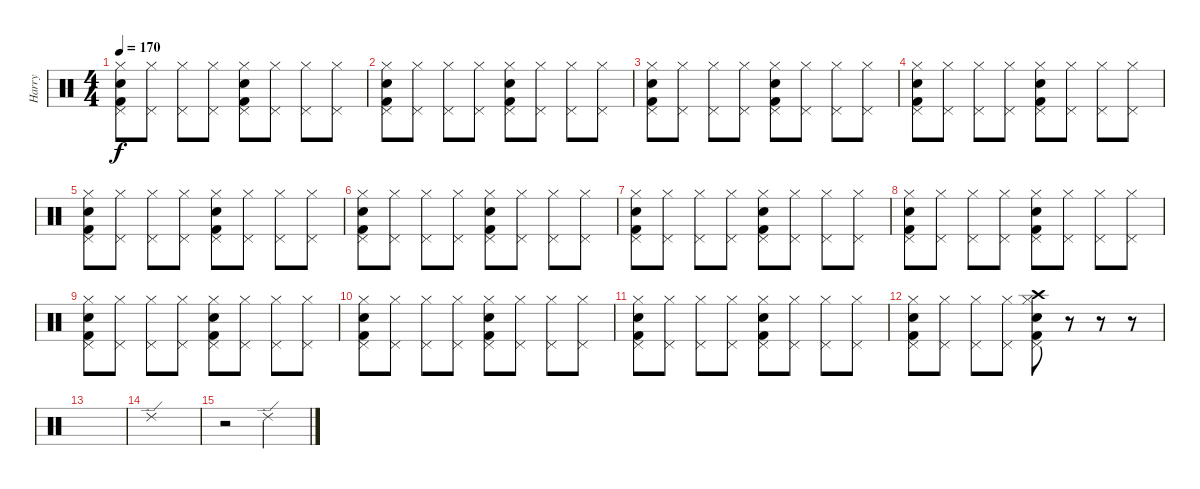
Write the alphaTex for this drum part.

\track ("Harry" "Harry") {instrument percussion}
\staff {score}
\articulation defaults
\ts (4 4)
\tempo 170
\clef neutral
\ks c
("Hi-Hat (closed)" "Pedal Hi-Hat (hit)" "Kick (hit) 2" "Snare (hit) 2").8{dy f} ("Hi-Hat (closed)" "Pedal Hi-Hat (hit)").8 ("Hi-Hat (closed)" "Pedal Hi-Hat (hit)").8 ("Hi-Hat (closed)" "Pedal Hi-Hat (hit)").8 ("Hi-Hat (closed)" "Pedal Hi-Hat (hit)" "Kick (hit) 2" "Snare (hit) 2").8 ("Hi-Hat (closed)" "Pedal Hi-Hat (hit)").8 ("Hi-Hat (closed)" "Pedal Hi-Hat (hit)").8 ("Hi-Hat (closed)" "Pedal Hi-Hat (hit)").8 |
("Hi-Hat (closed)" "Pedal Hi-Hat (hit)" "Kick (hit) 2" "Snare (hit) 2").8 ("Hi-Hat (closed)" "Pedal Hi-Hat (hit)").8 ("Hi-Hat (closed)" "Pedal Hi-Hat (hit)").8 ("Hi-Hat (closed)" "Pedal Hi-Hat (hit)").8 ("Hi-Hat (closed)" "Pedal Hi-Hat (hit)" "Kick (hit) 2" "Snare (hit) 2").8 ("Hi-Hat (closed)" "Pedal Hi-Hat (hit)").8 ("Hi-Hat (closed)" "Pedal Hi-Hat (hit)").8 ("Hi-Hat (closed)" "Pedal Hi-Hat (hit)").8 |
("Hi-Hat (closed)" "Pedal Hi-Hat (hit)" "Kick (hit) 2" "Snare (hit) 2").8 ("Hi-Hat (closed)" "Pedal Hi-Hat (hit)").8 ("Hi-Hat (closed)" "Pedal Hi-Hat (hit)").8 ("Hi-Hat (closed)" "Pedal Hi-Hat (hit)").8 ("Hi-Hat (closed)" "Pedal Hi-Hat (hit)" "Kick (hit) 2" "Snare (hit) 2").8 ("Hi-Hat (closed)" "Pedal Hi-Hat (hit)").8 ("Hi-Hat (closed)" "Pedal Hi-Hat (hit)").8 ("Hi-Hat (closed)" "Pedal Hi-Hat (hit)").8 |
("Hi-Hat (closed)" "Pedal Hi-Hat (hit)" "Kick (hit) 2" "Snare (hit) 2").8 ("Hi-Hat (closed)" "Pedal Hi-Hat (hit)").8 ("Hi-Hat (closed)" "Pedal Hi-Hat (hit)").8 ("Hi-Hat (closed)" "Pedal Hi-Hat (hit)").8 ("Hi-Hat (closed)" "Pedal Hi-Hat (hit)" "Kick (hit) 2" "Snare (hit) 2").8 ("Hi-Hat (closed)" "Pedal Hi-Hat (hit)").8 ("Hi-Hat (closed)" "Pedal Hi-Hat (hit)").8 ("Hi-Hat (closed)" "Pedal Hi-Hat (hit)").8 |
("Hi-Hat (closed)" "Pedal Hi-Hat (hit)" "Kick (hit) 2" "Snare (hit) 2").8 ("Hi-Hat (closed)" "Pedal Hi-Hat (hit)").8 ("Hi-Hat (closed)" "Pedal Hi-Hat (hit)").8 ("Hi-Hat (closed)" "Pedal Hi-Hat (hit)").8 ("Hi-Hat (closed)" "Pedal Hi-Hat (hit)" "Kick (hit) 2" "Snare (hit) 2").8 ("Hi-Hat (closed)" "Pedal Hi-Hat (hit)").8 ("Hi-Hat (closed)" "Pedal Hi-Hat (hit)").8 ("Hi-Hat (closed)" "Pedal Hi-Hat (hit)").8 |
("Hi-Hat (closed)" "Pedal Hi-Hat (hit)" "Kick (hit) 2" "Snare (hit) 2").8 ("Hi-Hat (closed)" "Pedal Hi-Hat (hit)").8 ("Hi-Hat (closed)" "Pedal Hi-Hat (hit)").8 ("Hi-Hat (closed)" "Pedal Hi-Hat (hit)").8 ("Hi-Hat (closed)" "Pedal Hi-Hat (hit)" "Kick (hit) 2" "Snare (hit) 2").8 ("Hi-Hat (closed)" "Pedal Hi-Hat (hit)").8 ("Hi-Hat (closed)" "Pedal Hi-Hat (hit)").8 ("Hi-Hat (closed)" "Pedal Hi-Hat (hit)").8 |
("Hi-Hat (closed)" "Pedal Hi-Hat (hit)" "Kick (hit) 2" "Snare (hit) 2").8 ("Hi-Hat (closed)" "Pedal Hi-Hat (hit)").8 ("Hi-Hat (closed)" "Pedal Hi-Hat (hit)").8 ("Hi-Hat (closed)" "Pedal Hi-Hat (hit)").8 ("Hi-Hat (closed)" "Pedal Hi-Hat (hit)" "Kick (hit) 2" "Snare (hit) 2").8 ("Hi-Hat (closed)" "Pedal Hi-Hat (hit)").8 ("Hi-Hat (closed)" "Pedal Hi-Hat (hit)").8 ("Hi-Hat (closed)" "Pedal Hi-Hat (hit)").8 |
("Hi-Hat (closed)" "Pedal Hi-Hat (hit)" "Kick (hit) 2" "Snare (hit) 2").8 ("Hi-Hat (closed)" "Pedal Hi-Hat (hit)").8 ("Hi-Hat (closed)" "Pedal Hi-Hat (hit)").8 ("Hi-Hat (closed)" "Pedal Hi-Hat (hit)").8 ("Hi-Hat (closed)" "Pedal Hi-Hat (hit)" "Kick (hit) 2" "Snare (hit) 2").8 ("Hi-Hat (closed)" "Pedal Hi-Hat (hit)").8 ("Hi-Hat (closed)" "Pedal Hi-Hat (hit)").8 ("Hi-Hat (closed)" "Pedal Hi-Hat (hit)").8 |
("Hi-Hat (closed)" "Pedal Hi-Hat (hit)" "Kick (hit) 2" "Snare (hit) 2").8 ("Hi-Hat (closed)" "Pedal Hi-Hat (hit)").8 ("Hi-Hat (closed)" "Pedal Hi-Hat (hit)").8 ("Hi-Hat (closed)" "Pedal Hi-Hat (hit)").8 ("Hi-Hat (closed)" "Pedal Hi-Hat (hit)" "Kick (hit) 2" "Snare (hit) 2").8 ("Hi-Hat (closed)" "Pedal Hi-Hat (hit)").8 ("Hi-Hat (closed)" "Pedal Hi-Hat (hit)").8 ("Hi-Hat (closed)" "Pedal Hi-Hat (hit)").8 |
("Hi-Hat (closed)" "Pedal Hi-Hat (hit)" "Kick (hit) 2" "Snare (hit) 2").8 ("Hi-Hat (closed)" "Pedal Hi-Hat (hit)").8 ("Hi-Hat (closed)" "Pedal Hi-Hat (hit)").8 ("Hi-Hat (closed)" "Pedal Hi-Hat (hit)").8 ("Hi-Hat (closed)" "Pedal Hi-Hat (hit)" "Kick (hit) 2" "Snare (hit) 2").8 ("Hi-Hat (closed)" "Pedal Hi-Hat (hit)").8 ("Hi-Hat (closed)" "Pedal Hi-Hat (hit)").8 ("Hi-Hat (closed)" "Pedal Hi-Hat (hit)").8 |
("Hi-Hat (closed)" "Pedal Hi-Hat (hit)" "Kick (hit) 2" "Snare (hit) 2").8 ("Hi-Hat (closed)" "Pedal Hi-Hat (hit)").8 ("Hi-Hat (closed)" "Pedal Hi-Hat (hit)").8 ("Hi-Hat (closed)" "Pedal Hi-Hat (hit)").8 ("Hi-Hat (closed)" "Pedal Hi-Hat (hit)" "Kick (hit) 2" "Snare (hit) 2").8 ("Hi-Hat (closed)" "Pedal Hi-Hat (hit)").8 ("Hi-Hat (closed)" "Pedal Hi-Hat (hit)").8 ("Hi-Hat (closed)" "Pedal Hi-Hat (hit)").8 |
("Hi-Hat (closed)" "Pedal Hi-Hat (hit)" "Kick (hit) 2" "Snare (hit) 2").8 ("Hi-Hat (closed)" "Pedal Hi-Hat (hit)").8 ("Hi-Hat (closed)" "Pedal Hi-Hat (hit)").8 ("Hi-Hat (closed)" "Pedal Hi-Hat (hit)").8 ("Hi-Hat (closed)" "Pedal Hi-Hat (hit)" "Crash high (hit)" "Kick (hit) 2" "Snare (hit) 2").8 r.8 r.8 r.8 |
|
"Ride (edge) 2".1 |
r.2 "Ride (edge) 2".2
